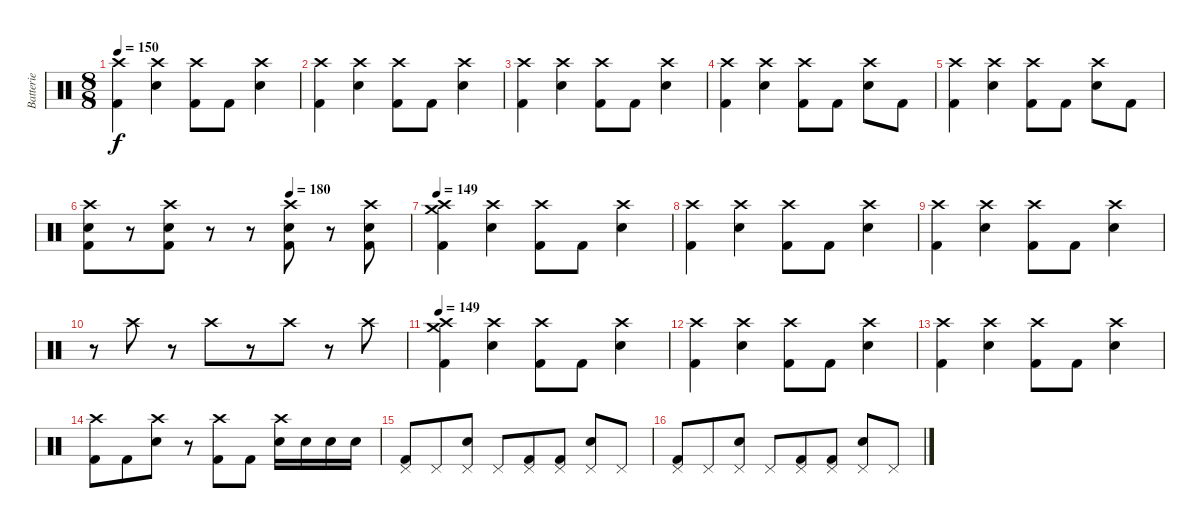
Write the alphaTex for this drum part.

\track ("Batterie" "Batterie") {instrument percussion}
\staff {score}
\articulation defaults
\ts (8 8)
\tempo 150
\clef neutral
\ks c
("Crash high (hit)" "Kick (hit) 2").4{dy f} ("Crash high (hit)" "Snare (hit) 2").4 ("Crash high (hit)" "Kick (hit) 2").8 "Kick (hit) 2".8 ("Crash high (hit)" "Snare (hit) 2").4 |
("Crash high (hit)" "Kick (hit) 2").4 ("Crash high (hit)" "Snare (hit) 2").4 ("Crash high (hit)" "Kick (hit) 2").8 "Kick (hit) 2".8 ("Crash high (hit)" "Snare (hit) 2").4 |
("Crash high (hit)" "Kick (hit) 2").4 ("Crash high (hit)" "Snare (hit) 2").4 ("Crash high (hit)" "Kick (hit) 2").8 "Kick (hit) 2".8 ("Crash high (hit)" "Snare (hit) 2").4 |
("Crash high (hit)" "Kick (hit) 2").4 ("Crash high (hit)" "Snare (hit) 2").4 ("Crash high (hit)" "Kick (hit) 2").8 "Kick (hit) 2".8 ("Crash high (hit)" "Snare (hit) 2").8 "Kick (hit) 2".8 |
("Crash high (hit)" "Kick (hit) 2").4 ("Crash high (hit)" "Snare (hit) 2").4 ("Crash high (hit)" "Kick (hit) 2").8 "Kick (hit) 2".8 ("Crash high (hit)" "Snare (hit) 2").8 "Kick (hit) 2".8 |
\tempo (180 0.625)
("Kick (hit) 2" "Snare (hit) 2" "Crash high (hit)").8 r.8 ("Kick (hit) 2" "Snare (hit) 2" "Crash high (hit)").8 r.8 r.8 ("Kick (hit) 2" "Snare (hit) 2" "Crash high (hit)").8 r.8 ("Kick (hit) 2" "Snare (hit) 2" "Crash high (hit)").8 |
\tempo 149
("Crash high (hit)" "Crash medium (hit)" "Kick (hit) 2").4 ("Crash high (hit)" "Snare (hit) 2").4 ("Crash high (hit)" "Kick (hit) 2").8 "Kick (hit) 2".8 ("Crash high (hit)" "Snare (hit) 2").4 |
("Crash high (hit)" "Kick (hit) 2").4 ("Crash high (hit)" "Snare (hit) 2").4 ("Crash high (hit)" "Kick (hit) 2").8 "Kick (hit) 2".8 ("Crash high (hit)" "Snare (hit) 2").4 |
("Crash high (hit)" "Kick (hit) 2").4 ("Crash high (hit)" "Snare (hit) 2").4 ("Crash high (hit)" "Kick (hit) 2").8 "Kick (hit) 2".8 ("Crash high (hit)" "Snare (hit) 2").4 |
r.8 "Crash high (hit)".8 r.8 "Crash high (hit)".8 r.8 "Crash high (hit)".8 r.8 "Crash high (hit)".8 |
\tempo 149
("Crash high (hit)" "Crash medium (hit)" "Kick (hit) 2").4 ("Crash high (hit)" "Snare (hit) 2").4 ("Crash high (hit)" "Kick (hit) 2").8 "Kick (hit) 2".8 ("Crash high (hit)" "Snare (hit) 2").4 |
("Crash high (hit)" "Kick (hit) 2").4 ("Crash high (hit)" "Snare (hit) 2").4 ("Crash high (hit)" "Kick (hit) 2").8 "Kick (hit) 2".8 ("Crash high (hit)" "Snare (hit) 2").4 |
("Crash high (hit)" "Kick (hit) 2").4 ("Crash high (hit)" "Snare (hit) 2").4 ("Crash high (hit)" "Kick (hit) 2").8 "Kick (hit) 2".8 ("Crash high (hit)" "Snare (hit) 2").4 |
("Crash high (hit)" "Kick (hit) 2").8 "Kick (hit) 2".8 ("Crash high (hit)" "Snare (hit) 2").8 r.8 ("Crash high (hit)" "Kick (hit) 2").8 "Kick (hit) 2".8 ("Crash high (hit)" "Snare (hit) 2").16 "Snare (hit) 2".16 "Snare (hit) 2".16 "Snare (hit) 2".16 |
("Pedal Hi-Hat (hit)" "Kick (hit) 2").8 "Pedal Hi-Hat (hit)".8 ("Pedal Hi-Hat (hit)" "Snare (hit) 2").8 "Pedal Hi-Hat (hit)".8 ("Pedal Hi-Hat (hit)" "Kick (hit) 2").8 ("Pedal Hi-Hat (hit)" "Kick (hit) 2").8 ("Pedal Hi-Hat (hit)" "Snare (hit) 2").8 "Pedal Hi-Hat (hit)".8 |
("Pedal Hi-Hat (hit)" "Kick (hit) 2").8 "Pedal Hi-Hat (hit)".8 ("Pedal Hi-Hat (hit)" "Snare (hit) 2").8 "Pedal Hi-Hat (hit)".8 ("Pedal Hi-Hat (hit)" "Kick (hit) 2").8 ("Pedal Hi-Hat (hit)" "Kick (hit) 2").8 ("Pedal Hi-Hat (hit)" "Snare (hit) 2").8 "Pedal Hi-Hat (hit)".8
